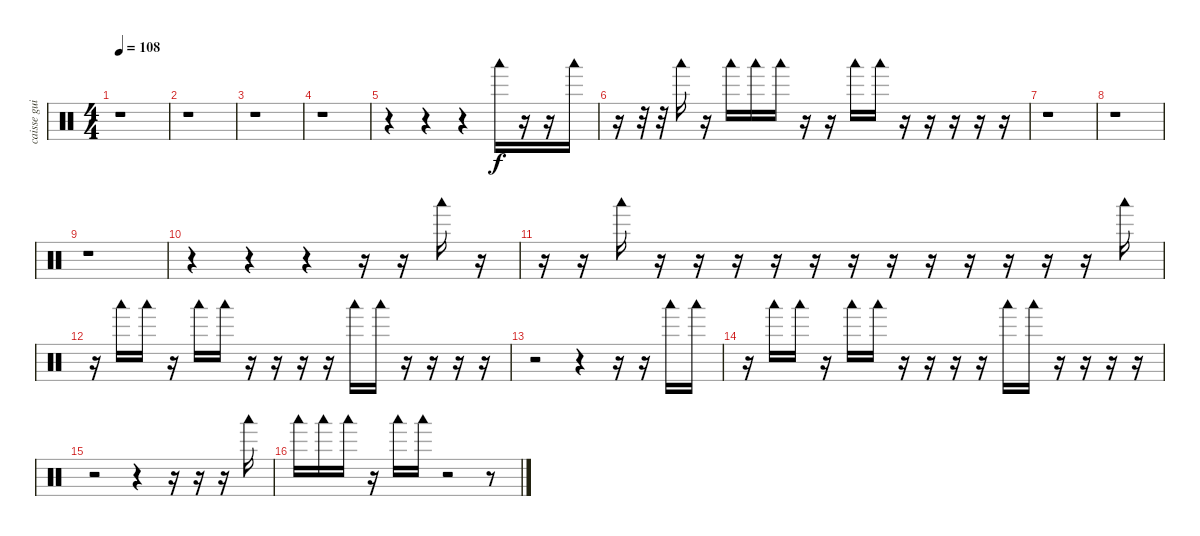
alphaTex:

\track ("caisse guitare Di Meola" "caisse gui") {instrument percussion}
\staff {score}
\articulation defaults
\ts (4 4)
\tempo 108
\clef neutral
\ks c
r.1{dy f} |
r.1 |
r.1 |
r.1 |
r.4 r.4 r.4 "Woodblock low (hit)".16 r.16 r.16 "Woodblock low (hit)".16 |
r.16 r.32 r.32 "Woodblock low (hit)".16 r.16 "Woodblock low (hit)".16 "Woodblock low (hit)".16 "Woodblock low (hit)".16 r.16 r.16 "Woodblock low (hit)".16 "Woodblock low (hit)".16 r.16 r.16 r.16 r.16 r.16 |
r.1 |
r.1 |
r.1 |
r.4 r.4 r.4 r.16 r.16 "Woodblock low (hit)".16 r.16 |
r.16 r.16 "Woodblock low (hit)".16 r.16 r.16 r.16 r.16 r.16 r.16 r.16 r.16 r.16 r.16 r.16 r.16 "Woodblock low (hit)".16 |
r.16 "Woodblock low (hit)".16 "Woodblock low (hit)".16 r.16 "Woodblock low (hit)".16 "Woodblock low (hit)".16 r.16 r.16 r.16 r.16 "Woodblock low (hit)".16 "Woodblock low (hit)".16 r.16 r.16 r.16 r.16 |
r.2 r.4 r.16 r.16 "Woodblock low (hit)".16 "Woodblock low (hit)".16 |
r.16 "Woodblock low (hit)".16 "Woodblock low (hit)".16 r.16 "Woodblock low (hit)".16 "Woodblock low (hit)".16 r.16 r.16 r.16 r.16 "Woodblock low (hit)".16 "Woodblock low (hit)".16 r.16 r.16 r.16 r.16 |
r.2 r.4 r.16 r.16 r.16 "Woodblock low (hit)".16 |
"Woodblock low (hit)".16 "Woodblock low (hit)".16 "Woodblock low (hit)".16 r.16 "Woodblock low (hit)".16 "Woodblock low (hit)".16 r.2 r.8
